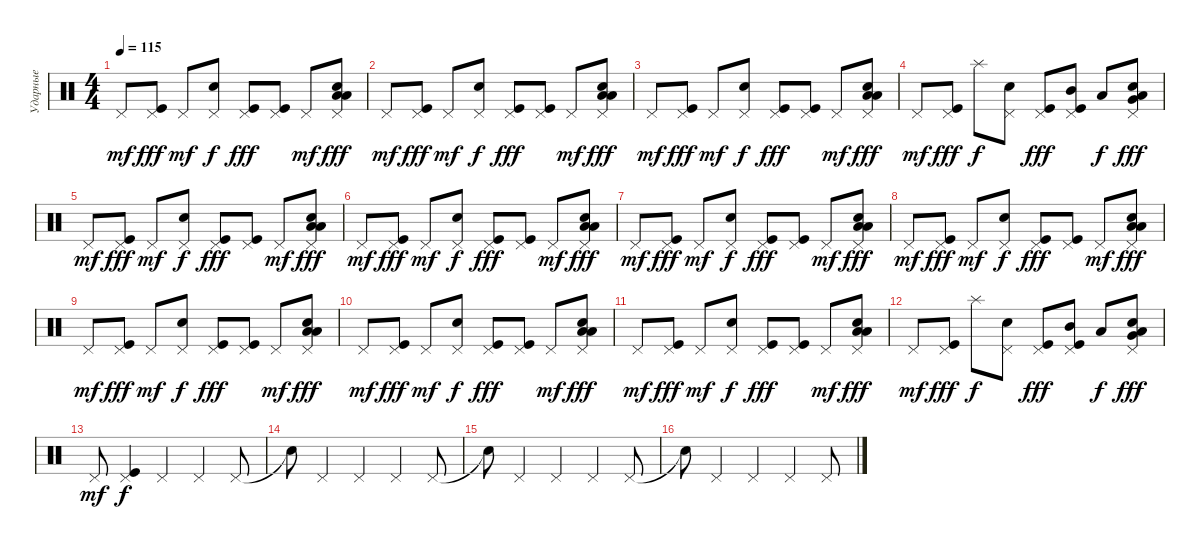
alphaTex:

\track ("Ударные" "Ударные") {instrument percussion}
\staff {score}
\articulation defaults
\ts (4 4)
\tempo 115
\clef neutral
\ks c "Pedal Hi-Hat (hit)".8{dy mf}
("Pedal Hi-Hat (hit)" "Kick (hit)").8{dy fff} "Pedal Hi-Hat (hit)".8{dy mf} ("Pedal Hi-Hat (hit)" "Electric Snare (hit)").8{dy f} ("Pedal Hi-Hat (hit)" "Kick (hit)").8{dy fff} ("Pedal Hi-Hat (hit)" "Kick (hit)").8 "Pedal Hi-Hat (hit)".8{dy mf} ("Pedal Hi-Hat (hit)" "Low Tom (hit)" "Low Tom (hit)" "Electric Snare (hit)").8{dy fff} |
"Pedal Hi-Hat (hit)".8{dy mf} ("Pedal Hi-Hat (hit)" "Kick (hit)").8{dy fff} "Pedal Hi-Hat (hit)".8{dy mf} ("Pedal Hi-Hat (hit)" "Electric Snare (hit)").8{dy f} ("Pedal Hi-Hat (hit)" "Kick (hit)").8{dy fff} ("Pedal Hi-Hat (hit)" "Kick (hit)").8 "Pedal Hi-Hat (hit)".8{dy mf} ("Pedal Hi-Hat (hit)" "Low Tom (hit)" "Low Tom (hit)" "Electric Snare (hit)").8{dy fff} |
"Pedal Hi-Hat (hit)".8{dy mf} ("Pedal Hi-Hat (hit)" "Kick (hit)").8{dy fff} "Pedal Hi-Hat (hit)".8{dy mf} ("Pedal Hi-Hat (hit)" "Electric Snare (hit)").8{dy f} ("Pedal Hi-Hat (hit)" "Kick (hit)").8{dy fff} ("Pedal Hi-Hat (hit)" "Kick (hit)").8 "Pedal Hi-Hat (hit)".8{dy mf} ("Pedal Hi-Hat (hit)" "Low Tom (hit)" "Low Tom (hit)" "Electric Snare (hit)").8{dy fff} |
"Pedal Hi-Hat (hit)".8{dy mf} ("Pedal Hi-Hat (hit)" "Kick (hit)").8{dy fff} "Splash (hit)".8{dy f} ("Pedal Hi-Hat (hit)" "Electric Snare (hit)").8 ("Pedal Hi-Hat (hit)" "Kick (hit)").8{dy fff} ("Pedal Hi-Hat (hit)" "Kick (hit)" "Mid Tom (hit)").8 "Low Tom (hit)".8{dy f} ("Pedal Hi-Hat (hit)" "Very Low Tom (hit)" "Low Tom (hit)" "Electric Snare (hit)").8{dy fff} |
"Pedal Hi-Hat (hit)".8{dy mf} ("Pedal Hi-Hat (hit)" "Kick (hit)").8{dy fff} "Pedal Hi-Hat (hit)".8{dy mf} ("Pedal Hi-Hat (hit)" "Electric Snare (hit)").8{dy f} ("Pedal Hi-Hat (hit)" "Kick (hit)").8{dy fff} ("Pedal Hi-Hat (hit)" "Kick (hit)").8 "Pedal Hi-Hat (hit)".8{dy mf} ("Pedal Hi-Hat (hit)" "Low Tom (hit)" "Low Tom (hit)" "Electric Snare (hit)").8{dy fff} |
"Pedal Hi-Hat (hit)".8{dy mf} ("Pedal Hi-Hat (hit)" "Kick (hit)").8{dy fff} "Pedal Hi-Hat (hit)".8{dy mf} ("Pedal Hi-Hat (hit)" "Electric Snare (hit)").8{dy f} ("Pedal Hi-Hat (hit)" "Kick (hit)").8{dy fff} ("Pedal Hi-Hat (hit)" "Kick (hit)").8 "Pedal Hi-Hat (hit)".8{dy mf} ("Pedal Hi-Hat (hit)" "Low Tom (hit)" "Low Tom (hit)" "Electric Snare (hit)").8{dy fff} |
"Pedal Hi-Hat (hit)".8{dy mf} ("Pedal Hi-Hat (hit)" "Kick (hit)").8{dy fff} "Pedal Hi-Hat (hit)".8{dy mf} ("Pedal Hi-Hat (hit)" "Electric Snare (hit)").8{dy f} ("Pedal Hi-Hat (hit)" "Kick (hit)").8{dy fff} ("Pedal Hi-Hat (hit)" "Kick (hit)").8 "Pedal Hi-Hat (hit)".8{dy mf} ("Pedal Hi-Hat (hit)" "Low Tom (hit)" "Low Tom (hit)" "Electric Snare (hit)").8{dy fff} |
"Pedal Hi-Hat (hit)".8{dy mf} ("Pedal Hi-Hat (hit)" "Kick (hit)").8{dy fff} "Pedal Hi-Hat (hit)".8{dy mf} ("Pedal Hi-Hat (hit)" "Electric Snare (hit)").8{dy f} ("Pedal Hi-Hat (hit)" "Kick (hit)").8{dy fff} ("Pedal Hi-Hat (hit)" "Kick (hit)").8 "Pedal Hi-Hat (hit)".8{dy mf} ("Pedal Hi-Hat (hit)" "Low Tom (hit)" "Low Tom (hit)" "Electric Snare (hit)").8{dy fff} |
"Pedal Hi-Hat (hit)".8{dy mf} ("Pedal Hi-Hat (hit)" "Kick (hit)").8{dy fff} "Pedal Hi-Hat (hit)".8{dy mf} ("Pedal Hi-Hat (hit)" "Electric Snare (hit)").8{dy f} ("Pedal Hi-Hat (hit)" "Kick (hit)").8{dy fff} ("Pedal Hi-Hat (hit)" "Kick (hit)").8 "Pedal Hi-Hat (hit)".8{dy mf} ("Pedal Hi-Hat (hit)" "Low Tom (hit)" "Low Tom (hit)" "Electric Snare (hit)").8{dy fff} |
"Pedal Hi-Hat (hit)".8{dy mf} ("Pedal Hi-Hat (hit)" "Kick (hit)").8{dy fff} "Pedal Hi-Hat (hit)".8{dy mf} ("Pedal Hi-Hat (hit)" "Electric Snare (hit)").8{dy f} ("Pedal Hi-Hat (hit)" "Kick (hit)").8{dy fff} ("Pedal Hi-Hat (hit)" "Kick (hit)").8 "Pedal Hi-Hat (hit)".8{dy mf} ("Pedal Hi-Hat (hit)" "Low Tom (hit)" "Low Tom (hit)" "Electric Snare (hit)").8{dy fff} |
"Pedal Hi-Hat (hit)".8{dy mf} ("Pedal Hi-Hat (hit)" "Kick (hit)").8{dy fff} "Pedal Hi-Hat (hit)".8{dy mf} ("Pedal Hi-Hat (hit)" "Electric Snare (hit)").8{dy f} ("Pedal Hi-Hat (hit)" "Kick (hit)").8{dy fff} ("Pedal Hi-Hat (hit)" "Kick (hit)").8 "Pedal Hi-Hat (hit)".8{dy mf} ("Pedal Hi-Hat (hit)" "Low Tom (hit)" "Low Tom (hit)" "Electric Snare (hit)").8{dy fff} |
"Pedal Hi-Hat (hit)".8{dy mf} ("Pedal Hi-Hat (hit)" "Kick (hit)").8{dy fff} "Splash (hit)".8{dy f} ("Pedal Hi-Hat (hit)" "Electric Snare (hit)").8 ("Pedal Hi-Hat (hit)" "Kick (hit)").8{dy fff} ("Pedal Hi-Hat (hit)" "Kick (hit)" "Mid Tom (hit)").8 "Low Tom (hit)".8{dy f} ("Pedal Hi-Hat (hit)" "Very Low Tom (hit)" "Low Tom (hit)" "Electric Snare (hit)").8{dy fff} |
"Pedal Hi-Hat (hit)".8{dy mf} ("Pedal Hi-Hat (hit)" "Kick (hit)").4{dy f} "Pedal Hi-Hat (hit)".4 "Pedal Hi-Hat (hit)".4 "Pedal Hi-Hat (hit)".8 |
"Snare (hit)"{t}.8 "Pedal Hi-Hat (hit)".4 "Pedal Hi-Hat (hit)".4 "Pedal Hi-Hat (hit)".4 "Pedal Hi-Hat (hit)".8 |
"Snare (hit)"{t}.8 "Pedal Hi-Hat (hit)".4 "Pedal Hi-Hat (hit)".4 "Pedal Hi-Hat (hit)".4 "Pedal Hi-Hat (hit)".8 |
"Snare (hit)"{t}.8 "Pedal Hi-Hat (hit)".4 "Pedal Hi-Hat (hit)".4 "Pedal Hi-Hat (hit)".4 "Pedal Hi-Hat (hit)".8
